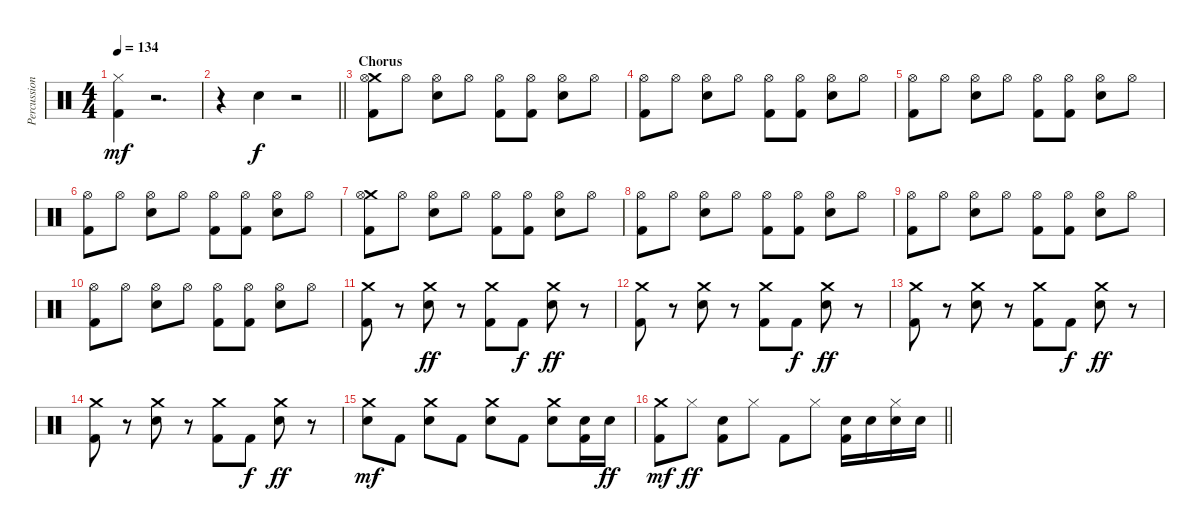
\track ("Percussion" "Percussion") {instrument percussion}
\staff {score}
\articulation defaults
\ts (4 4)
\tempo 134
\clef neutral
\ks c
("Hi-Hat (closed)" "Kick (hit) 2").4{dy mf} r.2{d} |
\barLineRight lightlight
r.4 "Snare (hit) 2".4{dy f} r.2 |
\section ("" "Chorus")
("Crash medium (hit)" "Hi-Hat (open)" "Kick (hit) 2").8 "Hi-Hat (open)".8 ("Hi-Hat (open)" "Snare (hit) 2").8 "Hi-Hat (open)".8 ("Hi-Hat (open)" "Kick (hit) 2").8 ("Hi-Hat (open)" "Kick (hit) 2").8 ("Hi-Hat (open)" "Snare (hit) 2").8 "Hi-Hat (open)".8 |
("Hi-Hat (open)" "Kick (hit) 2").8 "Hi-Hat (open)".8 ("Hi-Hat (open)" "Snare (hit) 2").8 "Hi-Hat (open)".8 ("Hi-Hat (open)" "Kick (hit) 2").8 ("Hi-Hat (open)" "Kick (hit) 2").8 ("Hi-Hat (open)" "Snare (hit) 2").8 "Hi-Hat (open)".8 |
("Hi-Hat (open)" "Kick (hit) 2").8 "Hi-Hat (open)".8 ("Hi-Hat (open)" "Snare (hit) 2").8 "Hi-Hat (open)".8 ("Hi-Hat (open)" "Kick (hit) 2").8 ("Hi-Hat (open)" "Kick (hit) 2").8 ("Hi-Hat (open)" "Snare (hit) 2").8 "Hi-Hat (open)".8 |
("Hi-Hat (open)" "Kick (hit) 2").8 "Hi-Hat (open)".8 ("Hi-Hat (open)" "Snare (hit) 2").8 "Hi-Hat (open)".8 ("Hi-Hat (open)" "Kick (hit) 2").8 ("Hi-Hat (open)" "Kick (hit) 2").8 ("Hi-Hat (open)" "Snare (hit) 2").8 "Hi-Hat (open)".8 |
("Crash medium (hit)" "Hi-Hat (open)" "Kick (hit) 2").8 "Hi-Hat (open)".8 ("Hi-Hat (open)" "Snare (hit) 2").8 "Hi-Hat (open)".8 ("Hi-Hat (open)" "Kick (hit) 2").8 ("Hi-Hat (open)" "Kick (hit) 2").8 ("Hi-Hat (open)" "Snare (hit) 2").8 "Hi-Hat (open)".8 |
("Hi-Hat (open)" "Kick (hit) 2").8 "Hi-Hat (open)".8 ("Hi-Hat (open)" "Snare (hit) 2").8 "Hi-Hat (open)".8 ("Hi-Hat (open)" "Kick (hit) 2").8 ("Hi-Hat (open)" "Kick (hit) 2").8 ("Hi-Hat (open)" "Snare (hit) 2").8 "Hi-Hat (open)".8 |
("Hi-Hat (open)" "Kick (hit) 2").8 "Hi-Hat (open)".8 ("Hi-Hat (open)" "Snare (hit) 2").8 "Hi-Hat (open)".8 ("Hi-Hat (open)" "Kick (hit) 2").8 ("Hi-Hat (open)" "Kick (hit) 2").8 ("Hi-Hat (open)" "Snare (hit) 2").8 "Hi-Hat (open)".8 |
("Hi-Hat (open)" "Kick (hit) 2").8 "Hi-Hat (open)".8 ("Hi-Hat (open)" "Snare (hit) 2").8 "Hi-Hat (open)".8 ("Hi-Hat (open)" "Kick (hit) 2").8 ("Hi-Hat (open)" "Kick (hit) 2").8 ("Hi-Hat (open)" "Snare (hit) 2").8 "Hi-Hat (open)".8 |
("Crash medium (hit)" "Kick (hit) 2").8 r.8 ("Crash medium (hit)" "Snare (hit) 2").8{dy ff} r.8 ("Crash medium (hit)" "Kick (hit) 2").8 "Kick (hit) 2".8{dy f} ("Crash medium (hit)" "Snare (hit) 2").8{dy ff} r.8 |
("Crash medium (hit)" "Kick (hit) 2").8 r.8 ("Crash medium (hit)" "Snare (hit) 2").8 r.8 ("Crash medium (hit)" "Kick (hit) 2").8 "Kick (hit) 2".8{dy f} ("Crash medium (hit)" "Snare (hit) 2").8{dy ff} r.8 |
("Crash medium (hit)" "Kick (hit) 2").8 r.8 ("Crash medium (hit)" "Snare (hit) 2").8 r.8 ("Crash medium (hit)" "Kick (hit) 2").8 "Kick (hit) 2".8{dy f} ("Crash medium (hit)" "Snare (hit) 2").8{dy ff} r.8 |
("Crash medium (hit)" "Kick (hit) 2").8 r.8 ("Crash medium (hit)" "Snare (hit) 2").8 r.8 ("Crash medium (hit)" "Kick (hit) 2").8 "Kick (hit) 2".8{dy f} ("Crash medium (hit)" "Snare (hit) 2").8{dy ff} r.8 |
("Crash medium (hit)" "Snare (hit) 2").8{dy mf} "Kick (hit) 2".8 ("Crash medium (hit)" "Snare (hit) 2").8 "Kick (hit) 2".8 ("Crash medium (hit)" "Snare (hit) 2").8 "Kick (hit) 2".8 ("Crash medium (hit)" "Snare (hit) 2").8 ("Snare (hit) 2" "Kick (hit) 2").16 "Snare (hit) 2".16{dy ff} |
\barLineRight lightlight
("Crash medium (hit)" "Kick (hit) 2").8{dy mf} "Hi-Hat (closed)".8{dy ff} ("Snare (hit) 2" "Kick (hit) 2").8 "Hi-Hat (closed)".8 "Kick (hit) 2".8 "Hi-Hat (closed)".8 ("Snare (hit) 2" "Kick (hit) 2").16 "Snare (hit) 2".16 ("Hi-Hat (closed)" "Snare (hit) 2").16 "Snare (hit) 2".16
